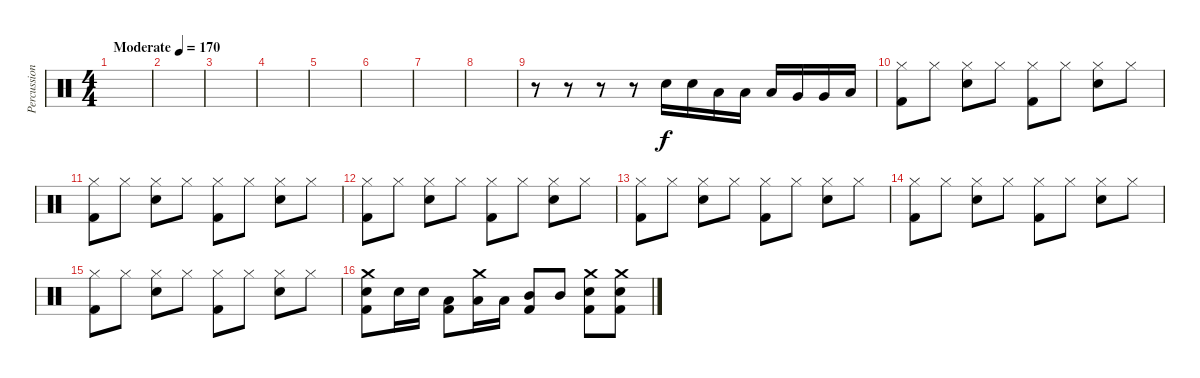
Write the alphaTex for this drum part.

\track ("Percussion" "Percussion") {instrument percussion}
\staff {score}
\articulation defaults
\ts (4 4)
\tempo (170 "Moderate")
\clef neutral
\ks c
|
|
|
|
|
|
|
|
r.8 r.8 r.8 r.8 "Snare (hit) 2".16 "Snare (hit) 2".16 "Low Tom (hit)".16 "Low Tom (hit)".16 "Low Tom (hit)".16 "Very Low Tom (hit)".16 "Very Low Tom (hit)".16 "Low Floor Tom (hit)".16 |
("Hi-Hat (closed)" "Kick (hit) 2").8 "Hi-Hat (closed)".8 ("Hi-Hat (closed)" "Snare (hit) 2").8 "Hi-Hat (closed)".8 ("Hi-Hat (closed)" "Kick (hit) 2").8 "Hi-Hat (closed)".8 ("Hi-Hat (closed)" "Snare (hit) 2").8 "Hi-Hat (closed)".8 |
("Hi-Hat (closed)" "Kick (hit) 2").8 "Hi-Hat (closed)".8 ("Hi-Hat (closed)" "Snare (hit) 2").8 "Hi-Hat (closed)".8 ("Hi-Hat (closed)" "Kick (hit) 2").8 "Hi-Hat (closed)".8 ("Hi-Hat (closed)" "Snare (hit) 2").8 "Hi-Hat (closed)".8 |
("Hi-Hat (closed)" "Kick (hit) 2").8 "Hi-Hat (closed)".8 ("Hi-Hat (closed)" "Snare (hit) 2").8 "Hi-Hat (closed)".8 ("Hi-Hat (closed)" "Kick (hit) 2").8 "Hi-Hat (closed)".8 ("Hi-Hat (closed)" "Snare (hit) 2").8 "Hi-Hat (closed)".8 |
("Hi-Hat (closed)" "Kick (hit) 2").8 "Hi-Hat (closed)".8 ("Hi-Hat (closed)" "Snare (hit) 2").8 "Hi-Hat (closed)".8 ("Hi-Hat (closed)" "Kick (hit) 2").8 "Hi-Hat (closed)".8 ("Hi-Hat (closed)" "Snare (hit) 2").8 "Hi-Hat (closed)".8 |
("Hi-Hat (closed)" "Kick (hit) 2").8 "Hi-Hat (closed)".8 ("Hi-Hat (closed)" "Snare (hit) 2").8 "Hi-Hat (closed)".8 ("Hi-Hat (closed)" "Kick (hit) 2").8 "Hi-Hat (closed)".8 ("Hi-Hat (closed)" "Snare (hit) 2").8 "Hi-Hat (closed)".8 |
("Hi-Hat (closed)" "Kick (hit) 2").8 "Hi-Hat (closed)".8 ("Hi-Hat (closed)" "Snare (hit) 2").8 "Hi-Hat (closed)".8 ("Hi-Hat (closed)" "Kick (hit) 2").8 "Hi-Hat (closed)".8 ("Hi-Hat (closed)" "Snare (hit) 2").8 "Hi-Hat (closed)".8 |
("Crash medium (hit)" "Snare (hit) 2" "Kick (hit) 2").8 "Snare (hit) 2".16 "Snare (hit) 2".16 ("Low Floor Tom (hit)" "Kick (hit) 2").8 ("Crash medium (hit)" "Low Tom (hit)").16 "Low Tom (hit)".16 ("Mid Tom (hit)" "Kick (hit) 2").8 "Mid Tom (hit)".8 ("Crash medium (hit)" "Snare (hit) 2" "Kick (hit) 2").8 ("Crash medium (hit)" "Snare (hit) 2" "Kick (hit) 2").8
